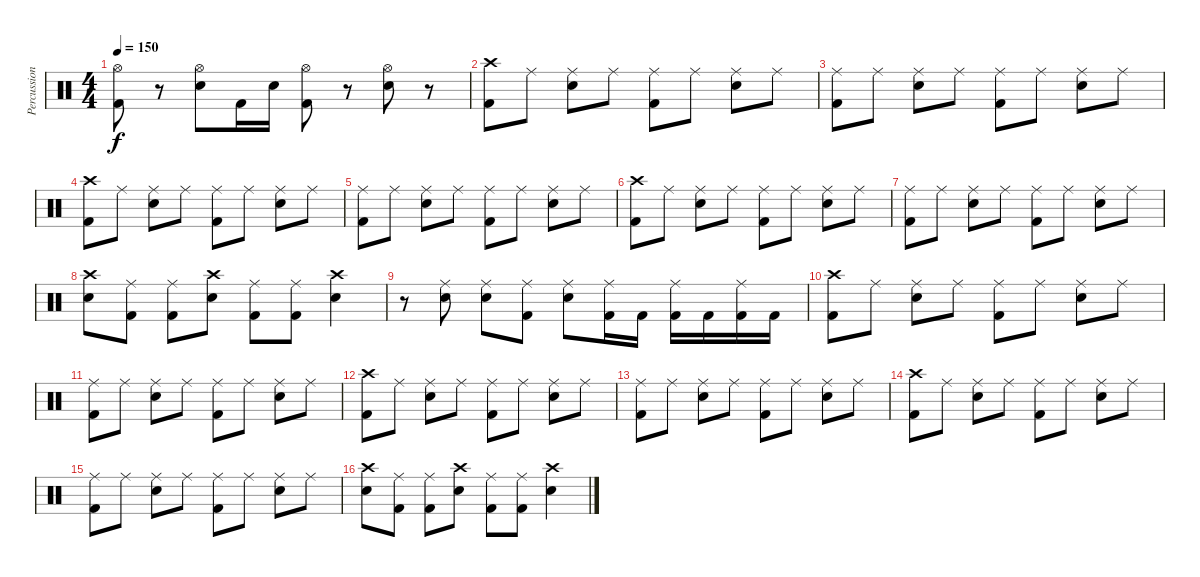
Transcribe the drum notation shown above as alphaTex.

\track ("Percussion" "Percussion") {instrument percussion}
\staff {score}
\articulation defaults
\ts (4 4)
\tempo 150
\clef neutral
\ks c
("Hi-Hat (open)" "Kick (hit) 2").8{dy f} r.8 ("Hi-Hat (open)" "Electric Snare (hit)").8 "Kick (hit) 2".16 "Electric Snare (hit)".16 ("Hi-Hat (open)" "Kick (hit) 2").8 r.8 ("Hi-Hat (open)" "Electric Snare (hit)").8 r.8 |
("Crash high (hit)" "Kick (hit) 2").8 "Ride (middle)".8 ("Ride (middle)" "Electric Snare (hit)").8 "Ride (middle)".8 ("Ride (middle)" "Kick (hit) 2").8 "Ride (middle)".8 ("Ride (middle)" "Electric Snare (hit)").8 "Ride (middle)".8 |
("Ride (middle)" "Kick (hit) 2").8 "Ride (middle)".8 ("Ride (middle)" "Electric Snare (hit)").8 "Ride (middle)".8 ("Ride (middle)" "Kick (hit) 2").8 "Ride (middle)".8 ("Ride (middle)" "Electric Snare (hit)").8 "Ride (middle)".8 |
("Crash high (hit)" "Kick (hit) 2").8 "Ride (middle)".8 ("Ride (middle)" "Electric Snare (hit)").8 "Ride (middle)".8 ("Ride (middle)" "Kick (hit) 2").8 "Ride (middle)".8 ("Ride (middle)" "Electric Snare (hit)").8 "Ride (middle)".8 |
("Ride (middle)" "Kick (hit) 2").8 "Ride (middle)".8 ("Ride (middle)" "Electric Snare (hit)").8 "Ride (middle)".8 ("Ride (middle)" "Kick (hit) 2").8 "Ride (middle)".8 ("Ride (middle)" "Electric Snare (hit)").8 "Ride (middle)".8 |
("Crash high (hit)" "Kick (hit) 2").8 "Ride (middle)".8 ("Ride (middle)" "Electric Snare (hit)").8 "Ride (middle)".8 ("Ride (middle)" "Kick (hit) 2").8 "Ride (middle)".8 ("Ride (middle)" "Electric Snare (hit)").8 "Ride (middle)".8 |
("Ride (middle)" "Kick (hit) 2").8 "Ride (middle)".8 ("Ride (middle)" "Electric Snare (hit)").8 "Ride (middle)".8 ("Ride (middle)" "Kick (hit) 2").8 "Ride (middle)".8 ("Ride (middle)" "Electric Snare (hit)").8 "Ride (middle)".8 |
("Crash high (hit)" "Electric Snare (hit)").8 ("Ride (middle)" "Kick (hit) 2").8 ("Ride (middle)" "Kick (hit) 2").8 ("Crash high (hit)" "Electric Snare (hit)").8 ("Ride (middle)" "Kick (hit) 2").8 ("Ride (middle)" "Kick (hit) 2").8 ("Crash high (hit)" "Electric Snare (hit)").4 |
r.8 ("Ride (middle)" "Electric Snare (hit)").8 ("Ride (middle)" "Electric Snare (hit)").8 ("Ride (middle)" "Kick (hit) 2").8 ("Ride (middle)" "Electric Snare (hit)").8 ("Ride (middle)" "Kick (hit) 2").16 "Kick (hit) 2".16 ("Ride (middle)" "Kick (hit) 2").16 "Kick (hit) 2".16 ("Ride (middle)" "Kick (hit) 2").16 "Kick (hit) 2".16 |
("Crash high (hit)" "Kick (hit) 2").8 "Ride (middle)".8 ("Ride (middle)" "Electric Snare (hit)").8 "Ride (middle)".8 ("Ride (middle)" "Kick (hit) 2").8 "Ride (middle)".8 ("Ride (middle)" "Electric Snare (hit)").8 "Ride (middle)".8 |
("Ride (middle)" "Kick (hit) 2").8 "Ride (middle)".8 ("Ride (middle)" "Electric Snare (hit)").8 "Ride (middle)".8 ("Ride (middle)" "Kick (hit) 2").8 "Ride (middle)".8 ("Ride (middle)" "Electric Snare (hit)").8 "Ride (middle)".8 |
("Crash high (hit)" "Kick (hit) 2").8 "Ride (middle)".8 ("Ride (middle)" "Electric Snare (hit)").8 "Ride (middle)".8 ("Ride (middle)" "Kick (hit) 2").8 "Ride (middle)".8 ("Ride (middle)" "Electric Snare (hit)").8 "Ride (middle)".8 |
("Ride (middle)" "Kick (hit) 2").8 "Ride (middle)".8 ("Ride (middle)" "Electric Snare (hit)").8 "Ride (middle)".8 ("Ride (middle)" "Kick (hit) 2").8 "Ride (middle)".8 ("Ride (middle)" "Electric Snare (hit)").8 "Ride (middle)".8 |
("Crash high (hit)" "Kick (hit) 2").8 "Ride (middle)".8 ("Ride (middle)" "Electric Snare (hit)").8 "Ride (middle)".8 ("Ride (middle)" "Kick (hit) 2").8 "Ride (middle)".8 ("Ride (middle)" "Electric Snare (hit)").8 "Ride (middle)".8 |
("Ride (middle)" "Kick (hit) 2").8 "Ride (middle)".8 ("Ride (middle)" "Electric Snare (hit)").8 "Ride (middle)".8 ("Ride (middle)" "Kick (hit) 2").8 "Ride (middle)".8 ("Ride (middle)" "Electric Snare (hit)").8 "Ride (middle)".8 |
("Crash high (hit)" "Electric Snare (hit)").8 ("Ride (middle)" "Kick (hit) 2").8 ("Ride (middle)" "Kick (hit) 2").8 ("Crash high (hit)" "Electric Snare (hit)").8 ("Ride (middle)" "Kick (hit) 2").8 ("Ride (middle)" "Kick (hit) 2").8 ("Crash high (hit)" "Electric Snare (hit)").4
